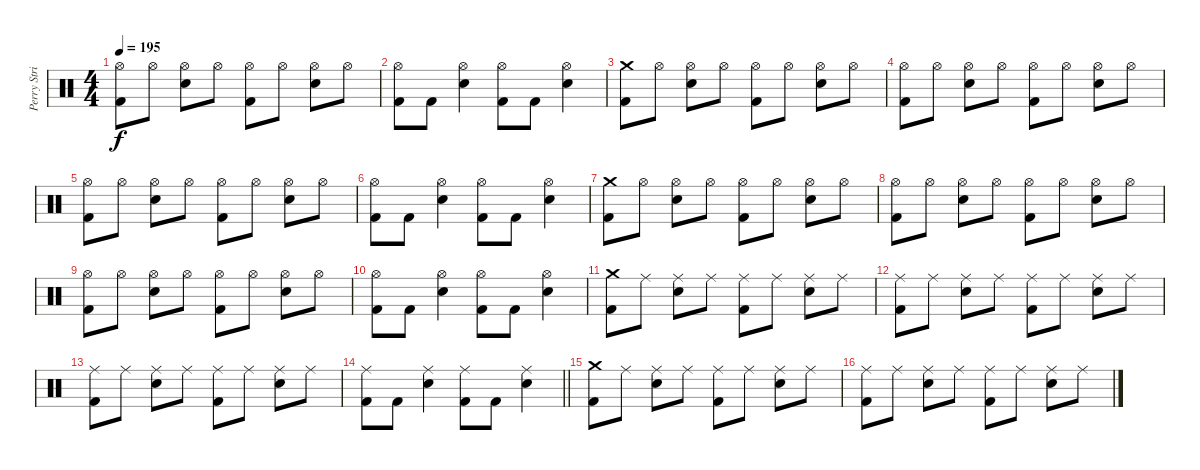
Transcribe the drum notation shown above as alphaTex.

\track ("Perry Strickland" "Perry Stri") {instrument percussion}
\staff {score}
\articulation defaults
\ts (4 4)
\tempo 195
\clef neutral
\ks c
("Hi-Hat (open)" "Kick (hit) 2").8{dy f} "Hi-Hat (open)".8 ("Hi-Hat (open)" "Electric Snare (hit)").8 "Hi-Hat (open)".8 ("Hi-Hat (open)" "Kick (hit) 2").8 "Hi-Hat (open)".8 ("Hi-Hat (open)" "Electric Snare (hit)").8 "Hi-Hat (open)".8 |
("Hi-Hat (open)" "Kick (hit) 2").8 "Kick (hit) 2".8 ("Hi-Hat (open)" "Electric Snare (hit)").4 ("Hi-Hat (open)" "Kick (hit) 2").8 "Kick (hit) 2".8 ("Hi-Hat (open)" "Electric Snare (hit)").4 |
("Crash medium (hit)" "Kick (hit) 2").8 "Hi-Hat (open)".8 ("Hi-Hat (open)" "Electric Snare (hit)").8 "Hi-Hat (open)".8 ("Hi-Hat (open)" "Kick (hit) 2").8 "Hi-Hat (open)".8 ("Hi-Hat (open)" "Electric Snare (hit)").8 "Hi-Hat (open)".8 |
("Hi-Hat (open)" "Kick (hit) 2").8 "Hi-Hat (open)".8 ("Hi-Hat (open)" "Electric Snare (hit)").8 "Hi-Hat (open)".8 ("Hi-Hat (open)" "Kick (hit) 2").8 "Hi-Hat (open)".8 ("Hi-Hat (open)" "Electric Snare (hit)").8 "Hi-Hat (open)".8 |
("Hi-Hat (open)" "Kick (hit) 2").8 "Hi-Hat (open)".8 ("Hi-Hat (open)" "Electric Snare (hit)").8 "Hi-Hat (open)".8 ("Hi-Hat (open)" "Kick (hit) 2").8 "Hi-Hat (open)".8 ("Hi-Hat (open)" "Electric Snare (hit)").8 "Hi-Hat (open)".8 |
("Hi-Hat (open)" "Kick (hit) 2").8 "Kick (hit) 2".8 ("Hi-Hat (open)" "Electric Snare (hit)").4 ("Hi-Hat (open)" "Kick (hit) 2").8 "Kick (hit) 2".8 ("Hi-Hat (open)" "Electric Snare (hit)").4 |
("Crash medium (hit)" "Kick (hit) 2").8 "Hi-Hat (open)".8 ("Hi-Hat (open)" "Electric Snare (hit)").8 "Hi-Hat (open)".8 ("Hi-Hat (open)" "Kick (hit) 2").8 "Hi-Hat (open)".8 ("Hi-Hat (open)" "Electric Snare (hit)").8 "Hi-Hat (open)".8 |
("Hi-Hat (open)" "Kick (hit) 2").8 "Hi-Hat (open)".8 ("Hi-Hat (open)" "Electric Snare (hit)").8 "Hi-Hat (open)".8 ("Hi-Hat (open)" "Kick (hit) 2").8 "Hi-Hat (open)".8 ("Hi-Hat (open)" "Electric Snare (hit)").8 "Hi-Hat (open)".8 |
("Hi-Hat (open)" "Kick (hit) 2").8 "Hi-Hat (open)".8 ("Hi-Hat (open)" "Electric Snare (hit)").8 "Hi-Hat (open)".8 ("Hi-Hat (open)" "Kick (hit) 2").8 "Hi-Hat (open)".8 ("Hi-Hat (open)" "Electric Snare (hit)").8 "Hi-Hat (open)".8 |
("Hi-Hat (open)" "Kick (hit) 2").8 "Kick (hit) 2".8 ("Hi-Hat (open)" "Electric Snare (hit)").4 ("Hi-Hat (open)" "Kick (hit) 2").8 "Kick (hit) 2".8 ("Hi-Hat (open)" "Electric Snare (hit)").4 |
("Crash medium (hit)" "Kick (hit) 2").8 "Ride (middle)".8 ("Ride (middle)" "Electric Snare (hit)").8 "Ride (middle)".8 ("Ride (middle)" "Kick (hit) 2").8 "Ride (middle)".8 ("Ride (middle)" "Electric Snare (hit)").8 "Ride (middle)".8 |
("Ride (middle)" "Kick (hit) 2").8 "Ride (middle)".8 ("Ride (middle)" "Electric Snare (hit)").8 "Ride (middle)".8 ("Ride (middle)" "Kick (hit) 2").8 "Ride (middle)".8 ("Ride (middle)" "Electric Snare (hit)").8 "Ride (middle)".8 |
("Ride (middle)" "Kick (hit) 2").8 "Ride (middle)".8 ("Ride (middle)" "Electric Snare (hit)").8 "Ride (middle)".8 ("Ride (middle)" "Kick (hit) 2").8 "Ride (middle)".8 ("Ride (middle)" "Electric Snare (hit)").8 "Ride (middle)".8 |
\barLineRight lightlight
("Ride (middle)" "Kick (hit) 2").8 "Kick (hit) 2".8 ("Ride (middle)" "Electric Snare (hit)").4 ("Ride (middle)" "Kick (hit) 2").8 "Kick (hit) 2".8 ("Ride (middle)" "Electric Snare (hit)").4 |
("Crash medium (hit)" "Kick (hit) 2").8 "Ride (middle)".8 ("Ride (middle)" "Electric Snare (hit)").8 "Ride (middle)".8 ("Ride (middle)" "Kick (hit) 2").8 "Ride (middle)".8 ("Ride (middle)" "Electric Snare (hit)").8 "Ride (middle)".8 |
("Ride (middle)" "Kick (hit) 2").8 "Ride (middle)".8 ("Ride (middle)" "Electric Snare (hit)").8 "Ride (middle)".8 ("Ride (middle)" "Kick (hit) 2").8 "Ride (middle)".8 ("Ride (middle)" "Electric Snare (hit)").8 "Ride (middle)".8
